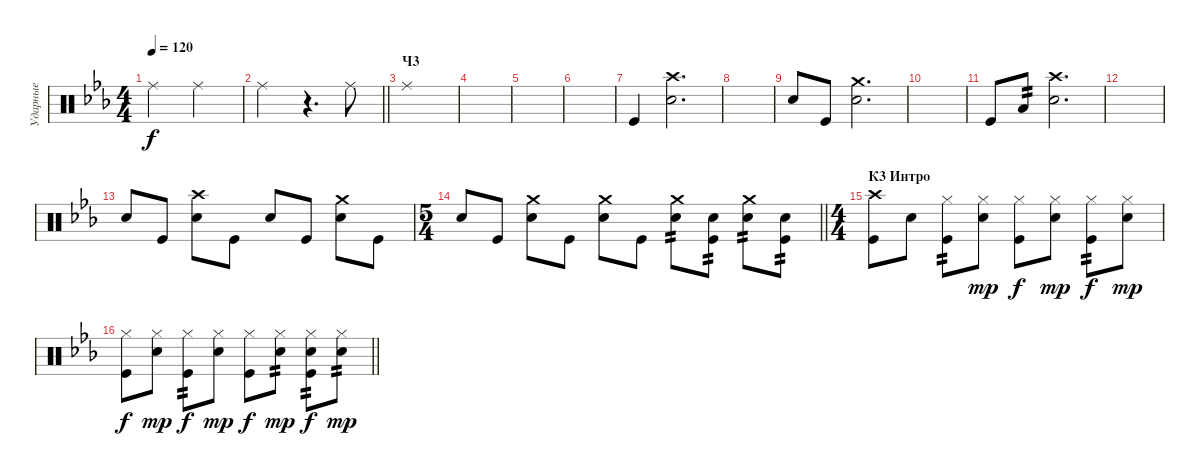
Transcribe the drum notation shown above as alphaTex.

\track ("Ударные" "Ударные") {instrument percussion}
\staff {score}
\articulation defaults
\ts (4 4)
\tempo 120
\clef neutral
\ks cminor "Ride (middle)".2{dy f} "Ride (middle)".2
|
\barLineRight lightlight "Ride (middle)".2
r.4{d} "Ride (middle)".8 |
\section ("" "Ч3")
"Ride (middle)".1 |
|
|
|
"Kick (hit)".4 ("Crash high (hit)" "Snare (hit) 2").2{d} |
|
"Snare (hit) 2".8 "Kick (hit)".8 ("Crash medium (hit)" "Snare (hit) 2").2{d} |
|
"Kick (hit)".8 "Low Tom (hit)".8{tp 2} ("Crash high (hit)" "Snare (hit) 2").2{d} |
|
"Snare (hit) 2".8 "Kick (hit)".8 ("Crash high (hit)" "Snare (hit) 2").8 "Kick (hit)".8 "Snare (hit) 2".8 "Kick (hit)".8 ("Crash medium (hit)" "Snare (hit) 2").8 "Kick (hit)".8 |
\ts (5 4)
\barLineRight lightlight "Snare (hit) 2".8 "Kick (hit)".8
("Crash medium (hit)" "Snare (hit) 2").8 "Kick (hit)".8 ("Crash medium (hit)" "Snare (hit) 2").8 "Kick (hit)".8 ("Crash medium (hit)" "Snare (hit) 2").8{tp 2} ("Snare (hit) 2" "Kick (hit)").8{tp 2} ("Crash medium (hit)" "Snare (hit) 2").8{tp 2} ("Snare (hit) 2" "Kick (hit)").8{tp 2} |
\ts (4 4)
\section ("" "К3 Интро")
("Crash high (hit)" "Kick (hit)").8 "Snare (hit) 2".8 ("Hi-Hat (closed)" "Kick (hit)").8{tp 2} ("Hi-Hat (closed)" "Snare (hit) 2").8{dy mp} ("Hi-Hat (closed)" "Kick (hit)").8{dy f} ("Hi-Hat (closed)" "Snare (hit) 2").8{dy mp} ("Hi-Hat (closed)" "Kick (hit)").8{tp 2 dy f} ("Hi-Hat (closed)" "Snare (hit) 2").8{dy mp} |
\barLineRight lightlight
("Hi-Hat (closed)" "Kick (hit)").8{dy f} ("Hi-Hat (closed)" "Snare (hit) 2").8{dy mp} ("Hi-Hat (closed)" "Kick (hit)").8{tp 2 dy f} ("Hi-Hat (closed)" "Snare (hit) 2").8{dy mp} ("Hi-Hat (closed)" "Kick (hit)").8{dy f} ("Hi-Hat (closed)" "Snare (hit) 2").8{tp 2 dy mp} ("Hi-Hat (closed)" "Snare (hit) 2" "Kick (hit)").8{tp 2 dy f} ("Hi-Hat (closed)" "Snare (hit) 2").8{tp 2 dy mp}
